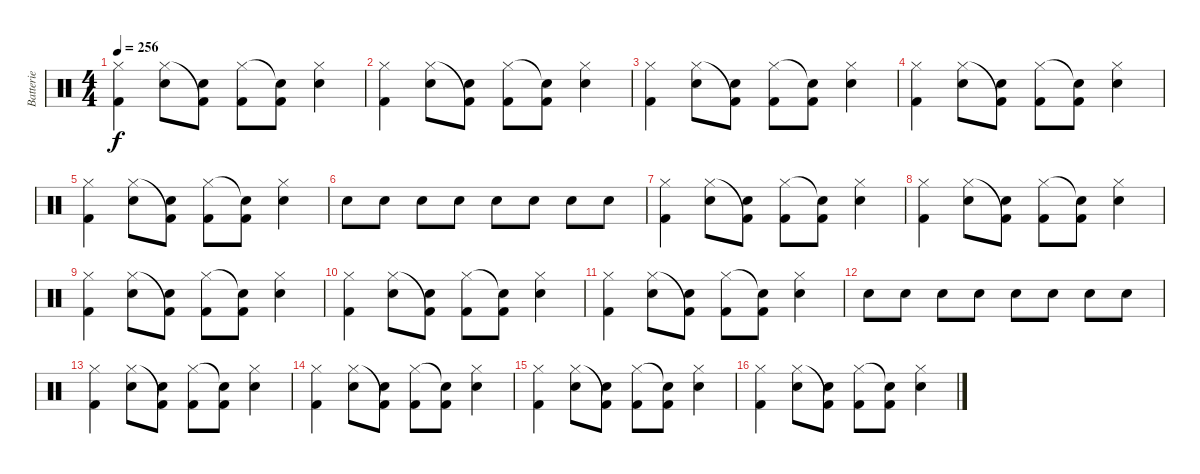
\track ("Batterie" "Batterie") {instrument percussion}
\staff {score}
\articulation defaults
\ts (4 4)
\tempo 256
\clef neutral
\ks c
("Hi-Hat (closed)" "Kick (hit) 2").4{dy f} ("Hi-Hat (closed)" "Snare (hit) 2").8 ("Kick (hit) 2"{t} "Snare (hit) 2").8 ("Hi-Hat (closed)" "Kick (hit) 2").8 ("Snare (hit)"{t} "Kick (hit) 2").8 ("Hi-Hat (closed)" "Snare (hit) 2").4 |
("Hi-Hat (closed)" "Kick (hit) 2").4 ("Hi-Hat (closed)" "Snare (hit) 2").8 ("Kick (hit) 2"{t} "Snare (hit) 2").8 ("Hi-Hat (closed)" "Kick (hit) 2").8 ("Snare (hit)"{t} "Kick (hit) 2").8 ("Hi-Hat (closed)" "Snare (hit) 2").4 |
("Hi-Hat (closed)" "Kick (hit) 2").4 ("Hi-Hat (closed)" "Snare (hit) 2").8 ("Kick (hit) 2"{t} "Snare (hit) 2").8 ("Hi-Hat (closed)" "Kick (hit) 2").8 ("Snare (hit)"{t} "Kick (hit) 2").8 ("Hi-Hat (closed)" "Snare (hit) 2").4 |
("Hi-Hat (closed)" "Kick (hit) 2").4 ("Hi-Hat (closed)" "Snare (hit) 2").8 ("Kick (hit) 2"{t} "Snare (hit) 2").8 ("Hi-Hat (closed)" "Kick (hit) 2").8 ("Snare (hit)"{t} "Kick (hit) 2").8 ("Hi-Hat (closed)" "Snare (hit) 2").4 |
("Hi-Hat (closed)" "Kick (hit) 2").4 ("Hi-Hat (closed)" "Snare (hit) 2").8 ("Kick (hit) 2"{t} "Snare (hit) 2").8 ("Hi-Hat (closed)" "Kick (hit) 2").8 ("Snare (hit)"{t} "Kick (hit) 2").8 ("Hi-Hat (closed)" "Snare (hit) 2").4 |
"Snare (hit) 2".8 "Snare (hit) 2".8 "Snare (hit) 2".8 "Snare (hit) 2".8 "Snare (hit) 2".8 "Snare (hit) 2".8 "Snare (hit) 2".8 "Snare (hit) 2".8 |
("Hi-Hat (closed)" "Kick (hit) 2").4 ("Hi-Hat (closed)" "Snare (hit) 2").8 ("Kick (hit) 2"{t} "Snare (hit) 2").8 ("Hi-Hat (closed)" "Kick (hit) 2").8 ("Snare (hit)"{t} "Kick (hit) 2").8 ("Hi-Hat (closed)" "Snare (hit) 2").4 |
("Hi-Hat (closed)" "Kick (hit) 2").4 ("Hi-Hat (closed)" "Snare (hit) 2").8 ("Kick (hit) 2"{t} "Snare (hit) 2").8 ("Hi-Hat (closed)" "Kick (hit) 2").8 ("Snare (hit)"{t} "Kick (hit) 2").8 ("Hi-Hat (closed)" "Snare (hit) 2").4 |
("Hi-Hat (closed)" "Kick (hit) 2").4 ("Hi-Hat (closed)" "Snare (hit) 2").8 ("Kick (hit) 2"{t} "Snare (hit) 2").8 ("Hi-Hat (closed)" "Kick (hit) 2").8 ("Snare (hit)"{t} "Kick (hit) 2").8 ("Hi-Hat (closed)" "Snare (hit) 2").4 |
("Hi-Hat (closed)" "Kick (hit) 2").4 ("Hi-Hat (closed)" "Snare (hit) 2").8 ("Kick (hit) 2"{t} "Snare (hit) 2").8 ("Hi-Hat (closed)" "Kick (hit) 2").8 ("Snare (hit)"{t} "Kick (hit) 2").8 ("Hi-Hat (closed)" "Snare (hit) 2").4 |
("Hi-Hat (closed)" "Kick (hit) 2").4 ("Hi-Hat (closed)" "Snare (hit) 2").8 ("Kick (hit) 2"{t} "Snare (hit) 2").8 ("Hi-Hat (closed)" "Kick (hit) 2").8 ("Snare (hit)"{t} "Kick (hit) 2").8 ("Hi-Hat (closed)" "Snare (hit) 2").4 |
"Snare (hit) 2".8 "Snare (hit) 2".8 "Snare (hit) 2".8 "Snare (hit) 2".8 "Snare (hit) 2".8 "Snare (hit) 2".8 "Snare (hit) 2".8 "Snare (hit) 2".8 |
("Hi-Hat (closed)" "Kick (hit) 2").4 ("Hi-Hat (closed)" "Snare (hit) 2").8 ("Kick (hit) 2"{t} "Snare (hit) 2").8 ("Hi-Hat (closed)" "Kick (hit) 2").8 ("Snare (hit)"{t} "Kick (hit) 2").8 ("Hi-Hat (closed)" "Snare (hit) 2").4 |
("Hi-Hat (closed)" "Kick (hit) 2").4 ("Hi-Hat (closed)" "Snare (hit) 2").8 ("Kick (hit) 2"{t} "Snare (hit) 2").8 ("Hi-Hat (closed)" "Kick (hit) 2").8 ("Snare (hit)"{t} "Kick (hit) 2").8 ("Hi-Hat (closed)" "Snare (hit) 2").4 |
("Hi-Hat (closed)" "Kick (hit) 2").4 ("Hi-Hat (closed)" "Snare (hit) 2").8 ("Kick (hit) 2"{t} "Snare (hit) 2").8 ("Hi-Hat (closed)" "Kick (hit) 2").8 ("Snare (hit)"{t} "Kick (hit) 2").8 ("Hi-Hat (closed)" "Snare (hit) 2").4 |
("Hi-Hat (closed)" "Kick (hit) 2").4 ("Hi-Hat (closed)" "Snare (hit) 2").8 ("Kick (hit) 2"{t} "Snare (hit) 2").8 ("Hi-Hat (closed)" "Kick (hit) 2").8 ("Snare (hit)"{t} "Kick (hit) 2").8 ("Hi-Hat (closed)" "Snare (hit) 2").4
